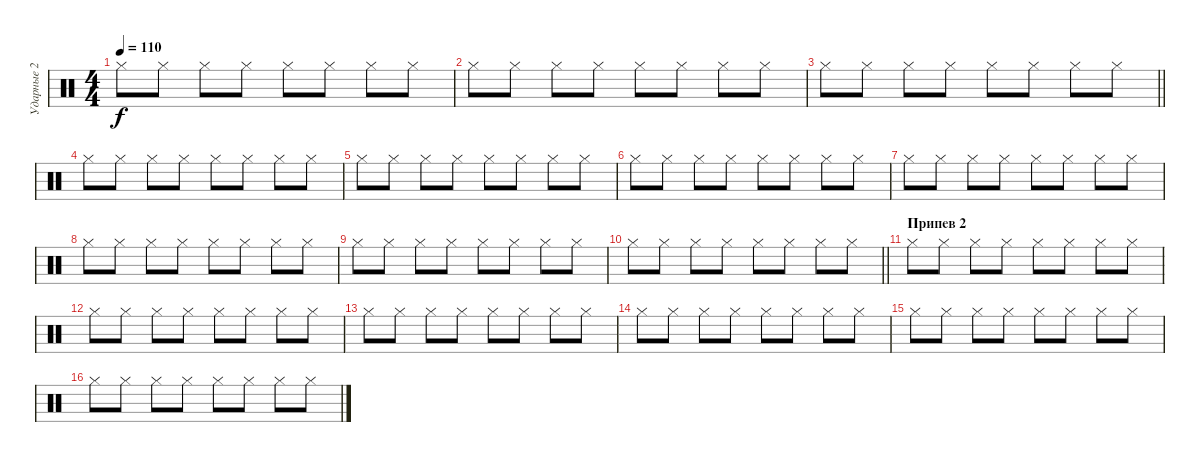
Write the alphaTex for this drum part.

\track ("Ударные 2" "Ударные 2") {instrument percussion}
\staff {score}
\articulation defaults
\ts (4 4)
\tempo 110
\clef neutral
\ks c "Hi-Hat (closed)".8{dy f} "Hi-Hat (closed)".8 "Hi-Hat (closed)".8 "Hi-Hat (closed)".8 "Hi-Hat (closed)".8 "Hi-Hat (closed)".8 "Hi-Hat (closed)".8 "Hi-Hat (closed)".8
|
"Hi-Hat (closed)".8 "Hi-Hat (closed)".8 "Hi-Hat (closed)".8 "Hi-Hat (closed)".8 "Hi-Hat (closed)".8 "Hi-Hat (closed)".8 "Hi-Hat (closed)".8 "Hi-Hat (closed)".8 |
\barLineRight lightlight "Hi-Hat (closed)".8 "Hi-Hat (closed)".8 "Hi-Hat (closed)".8 "Hi-Hat (closed)".8 "Hi-Hat (closed)".8 "Hi-Hat (closed)".8 "Hi-Hat (closed)".8 "Hi-Hat (closed)".8
|
"Hi-Hat (closed)".8 "Hi-Hat (closed)".8 "Hi-Hat (closed)".8 "Hi-Hat (closed)".8 "Hi-Hat (closed)".8 "Hi-Hat (closed)".8 "Hi-Hat (closed)".8 "Hi-Hat (closed)".8 |
"Hi-Hat (closed)".8 "Hi-Hat (closed)".8 "Hi-Hat (closed)".8 "Hi-Hat (closed)".8 "Hi-Hat (closed)".8 "Hi-Hat (closed)".8 "Hi-Hat (closed)".8 "Hi-Hat (closed)".8 |
"Hi-Hat (closed)".8 "Hi-Hat (closed)".8 "Hi-Hat (closed)".8 "Hi-Hat (closed)".8 "Hi-Hat (closed)".8 "Hi-Hat (closed)".8 "Hi-Hat (closed)".8 "Hi-Hat (closed)".8 |
"Hi-Hat (closed)".8 "Hi-Hat (closed)".8 "Hi-Hat (closed)".8 "Hi-Hat (closed)".8 "Hi-Hat (closed)".8 "Hi-Hat (closed)".8 "Hi-Hat (closed)".8 "Hi-Hat (closed)".8 |
"Hi-Hat (closed)".8 "Hi-Hat (closed)".8 "Hi-Hat (closed)".8 "Hi-Hat (closed)".8 "Hi-Hat (closed)".8 "Hi-Hat (closed)".8 "Hi-Hat (closed)".8 "Hi-Hat (closed)".8 |
"Hi-Hat (closed)".8 "Hi-Hat (closed)".8 "Hi-Hat (closed)".8 "Hi-Hat (closed)".8 "Hi-Hat (closed)".8 "Hi-Hat (closed)".8 "Hi-Hat (closed)".8 "Hi-Hat (closed)".8 |
\barLineRight lightlight "Hi-Hat (closed)".8 "Hi-Hat (closed)".8 "Hi-Hat (closed)".8 "Hi-Hat (closed)".8 "Hi-Hat (closed)".8 "Hi-Hat (closed)".8 "Hi-Hat (closed)".8 "Hi-Hat (closed)".8
|
\section ("" "Припев 2")
"Hi-Hat (closed)".8 "Hi-Hat (closed)".8 "Hi-Hat (closed)".8 "Hi-Hat (closed)".8 "Hi-Hat (closed)".8 "Hi-Hat (closed)".8 "Hi-Hat (closed)".8 "Hi-Hat (closed)".8 |
"Hi-Hat (closed)".8 "Hi-Hat (closed)".8 "Hi-Hat (closed)".8 "Hi-Hat (closed)".8 "Hi-Hat (closed)".8 "Hi-Hat (closed)".8 "Hi-Hat (closed)".8 "Hi-Hat (closed)".8 |
"Hi-Hat (closed)".8 "Hi-Hat (closed)".8 "Hi-Hat (closed)".8 "Hi-Hat (closed)".8 "Hi-Hat (closed)".8 "Hi-Hat (closed)".8 "Hi-Hat (closed)".8 "Hi-Hat (closed)".8 |
"Hi-Hat (closed)".8 "Hi-Hat (closed)".8 "Hi-Hat (closed)".8 "Hi-Hat (closed)".8 "Hi-Hat (closed)".8 "Hi-Hat (closed)".8 "Hi-Hat (closed)".8 "Hi-Hat (closed)".8 |
"Hi-Hat (closed)".8 "Hi-Hat (closed)".8 "Hi-Hat (closed)".8 "Hi-Hat (closed)".8 "Hi-Hat (closed)".8 "Hi-Hat (closed)".8 "Hi-Hat (closed)".8 "Hi-Hat (closed)".8 |
"Hi-Hat (closed)".8 "Hi-Hat (closed)".8 "Hi-Hat (closed)".8 "Hi-Hat (closed)".8 "Hi-Hat (closed)".8 "Hi-Hat (closed)".8 "Hi-Hat (closed)".8 "Hi-Hat (closed)".8
